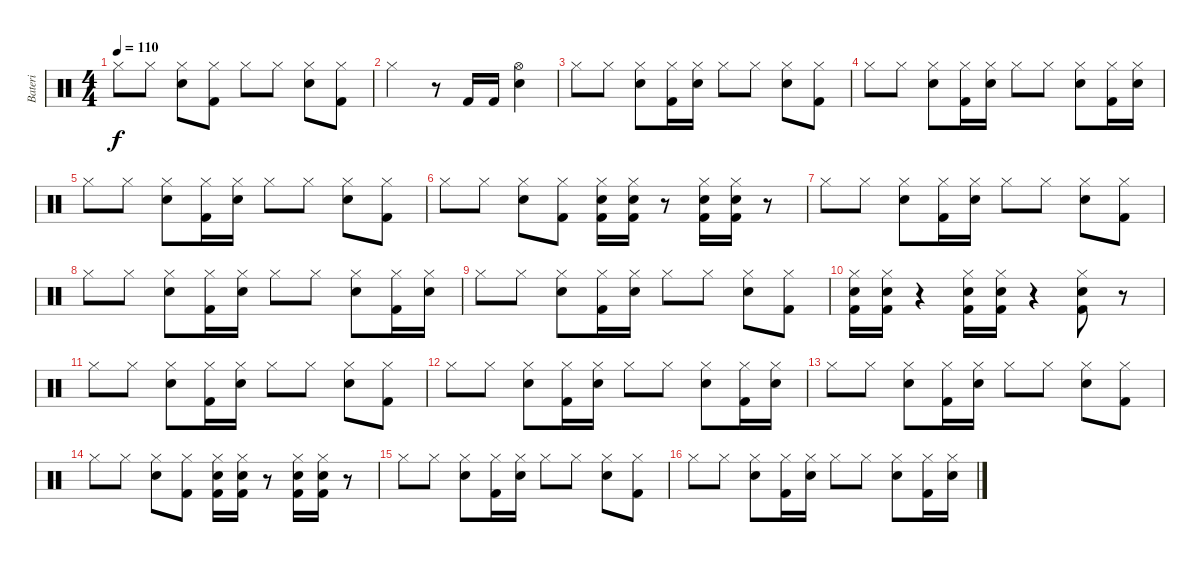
\track ("Bateri" "Bateri") {instrument percussion}
\staff {score}
\articulation defaults
\ts (4 4)
\tempo 110
\clef neutral
\ks c "Hi-Hat (closed)".8{dy f} "Hi-Hat (closed)".8
("Electric Snare (hit)" "Hi-Hat (closed)").8 ("Kick (hit) 2" "Hi-Hat (closed)").8 "Hi-Hat (closed)".8 "Hi-Hat (closed)".8 ("Electric Snare (hit)" "Hi-Hat (closed)").8 ("Kick (hit) 2" "Hi-Hat (closed)").8 |
"Hi-Hat (closed)".2 r.8 "Kick (hit) 2".16 "Kick (hit) 2".16 ("Electric Snare (hit)" "Hi-Hat (open)").4 |
"Hi-Hat (closed)".8 "Hi-Hat (closed)".8 ("Electric Snare (hit)" "Hi-Hat (closed)").8 ("Kick (hit) 2" "Hi-Hat (closed)").16 ("Electric Snare (hit)" "Hi-Hat (closed)").16 "Hi-Hat (closed)".8 "Hi-Hat (closed)".8 ("Electric Snare (hit)" "Hi-Hat (closed)").8 ("Kick (hit) 2" "Hi-Hat (closed)").8 |
"Hi-Hat (closed)".8 "Hi-Hat (closed)".8 ("Electric Snare (hit)" "Hi-Hat (closed)").8 ("Kick (hit) 2" "Hi-Hat (closed)").16 ("Electric Snare (hit)" "Hi-Hat (closed)").16 "Hi-Hat (closed)".8 "Hi-Hat (closed)".8 ("Electric Snare (hit)" "Hi-Hat (closed)").8 ("Kick (hit) 2" "Hi-Hat (closed)").16 ("Electric Snare (hit)" "Hi-Hat (closed)").16 |
"Hi-Hat (closed)".8 "Hi-Hat (closed)".8 ("Electric Snare (hit)" "Hi-Hat (closed)").8 ("Kick (hit) 2" "Hi-Hat (closed)").16 ("Electric Snare (hit)" "Hi-Hat (closed)").16 "Hi-Hat (closed)".8 "Hi-Hat (closed)".8 ("Electric Snare (hit)" "Hi-Hat (closed)").8 ("Kick (hit) 2" "Hi-Hat (closed)").8 |
"Hi-Hat (closed)".8 "Hi-Hat (closed)".8 ("Electric Snare (hit)" "Hi-Hat (closed)").8 ("Kick (hit) 2" "Hi-Hat (closed)").8 ("Electric Snare (hit)" "Kick (hit) 2" "Hi-Hat (closed)").16 ("Electric Snare (hit)" "Kick (hit) 2" "Hi-Hat (closed)").16 r.8 ("Electric Snare (hit)" "Kick (hit) 2" "Hi-Hat (closed)").16 ("Electric Snare (hit)" "Kick (hit) 2" "Hi-Hat (closed)").16 r.8 |
"Hi-Hat (closed)".8 "Hi-Hat (closed)".8 ("Electric Snare (hit)" "Hi-Hat (closed)").8 ("Kick (hit) 2" "Hi-Hat (closed)").16 ("Electric Snare (hit)" "Hi-Hat (closed)").16 "Hi-Hat (closed)".8 "Hi-Hat (closed)".8 ("Electric Snare (hit)" "Hi-Hat (closed)").8 ("Kick (hit) 2" "Hi-Hat (closed)").8 |
"Hi-Hat (closed)".8 "Hi-Hat (closed)".8 ("Electric Snare (hit)" "Hi-Hat (closed)").8 ("Kick (hit) 2" "Hi-Hat (closed)").16 ("Electric Snare (hit)" "Hi-Hat (closed)").16 "Hi-Hat (closed)".8 "Hi-Hat (closed)".8 ("Electric Snare (hit)" "Hi-Hat (closed)").8 ("Kick (hit) 2" "Hi-Hat (closed)").16 ("Electric Snare (hit)" "Hi-Hat (closed)").16 |
"Hi-Hat (closed)".8 "Hi-Hat (closed)".8 ("Electric Snare (hit)" "Hi-Hat (closed)").8 ("Kick (hit) 2" "Hi-Hat (closed)").16 ("Electric Snare (hit)" "Hi-Hat (closed)").16 "Hi-Hat (closed)".8 "Hi-Hat (closed)".8 ("Electric Snare (hit)" "Hi-Hat (closed)").8 ("Kick (hit) 2" "Hi-Hat (closed)").8 |
("Electric Snare (hit)" "Kick (hit) 2" "Hi-Hat (closed)").16 ("Electric Snare (hit)" "Kick (hit) 2" "Hi-Hat (closed)").16 r.4 ("Electric Snare (hit)" "Kick (hit) 2" "Hi-Hat (closed)").16 ("Electric Snare (hit)" "Kick (hit) 2" "Hi-Hat (closed)").16 r.4 ("Electric Snare (hit)" "Kick (hit) 2" "Hi-Hat (closed)").8 r.8 |
"Hi-Hat (closed)".8 "Hi-Hat (closed)".8 ("Electric Snare (hit)" "Hi-Hat (closed)").8 ("Kick (hit) 2" "Hi-Hat (closed)").16 ("Electric Snare (hit)" "Hi-Hat (closed)").16 "Hi-Hat (closed)".8 "Hi-Hat (closed)".8 ("Electric Snare (hit)" "Hi-Hat (closed)").8 ("Kick (hit) 2" "Hi-Hat (closed)").8 |
"Hi-Hat (closed)".8 "Hi-Hat (closed)".8 ("Electric Snare (hit)" "Hi-Hat (closed)").8 ("Kick (hit) 2" "Hi-Hat (closed)").16 ("Electric Snare (hit)" "Hi-Hat (closed)").16 "Hi-Hat (closed)".8 "Hi-Hat (closed)".8 ("Electric Snare (hit)" "Hi-Hat (closed)").8 ("Kick (hit) 2" "Hi-Hat (closed)").16 ("Electric Snare (hit)" "Hi-Hat (closed)").16 |
"Hi-Hat (closed)".8 "Hi-Hat (closed)".8 ("Electric Snare (hit)" "Hi-Hat (closed)").8 ("Kick (hit) 2" "Hi-Hat (closed)").16 ("Electric Snare (hit)" "Hi-Hat (closed)").16 "Hi-Hat (closed)".8 "Hi-Hat (closed)".8 ("Electric Snare (hit)" "Hi-Hat (closed)").8 ("Kick (hit) 2" "Hi-Hat (closed)").8 |
"Hi-Hat (closed)".8 "Hi-Hat (closed)".8 ("Electric Snare (hit)" "Hi-Hat (closed)").8 ("Kick (hit) 2" "Hi-Hat (closed)").8 ("Electric Snare (hit)" "Kick (hit) 2" "Hi-Hat (closed)").16 ("Electric Snare (hit)" "Kick (hit) 2" "Hi-Hat (closed)").16 r.8 ("Electric Snare (hit)" "Kick (hit) 2" "Hi-Hat (closed)").16 ("Electric Snare (hit)" "Kick (hit) 2" "Hi-Hat (closed)").16 r.8 |
"Hi-Hat (closed)".8 "Hi-Hat (closed)".8 ("Electric Snare (hit)" "Hi-Hat (closed)").8 ("Kick (hit) 2" "Hi-Hat (closed)").16 ("Electric Snare (hit)" "Hi-Hat (closed)").16 "Hi-Hat (closed)".8 "Hi-Hat (closed)".8 ("Electric Snare (hit)" "Hi-Hat (closed)").8 ("Kick (hit) 2" "Hi-Hat (closed)").8 |
"Hi-Hat (closed)".8 "Hi-Hat (closed)".8 ("Electric Snare (hit)" "Hi-Hat (closed)").8 ("Kick (hit) 2" "Hi-Hat (closed)").16 ("Electric Snare (hit)" "Hi-Hat (closed)").16 "Hi-Hat (closed)".8 "Hi-Hat (closed)".8 ("Electric Snare (hit)" "Hi-Hat (closed)").8 ("Kick (hit) 2" "Hi-Hat (closed)").16 ("Electric Snare (hit)" "Hi-Hat (closed)").16
